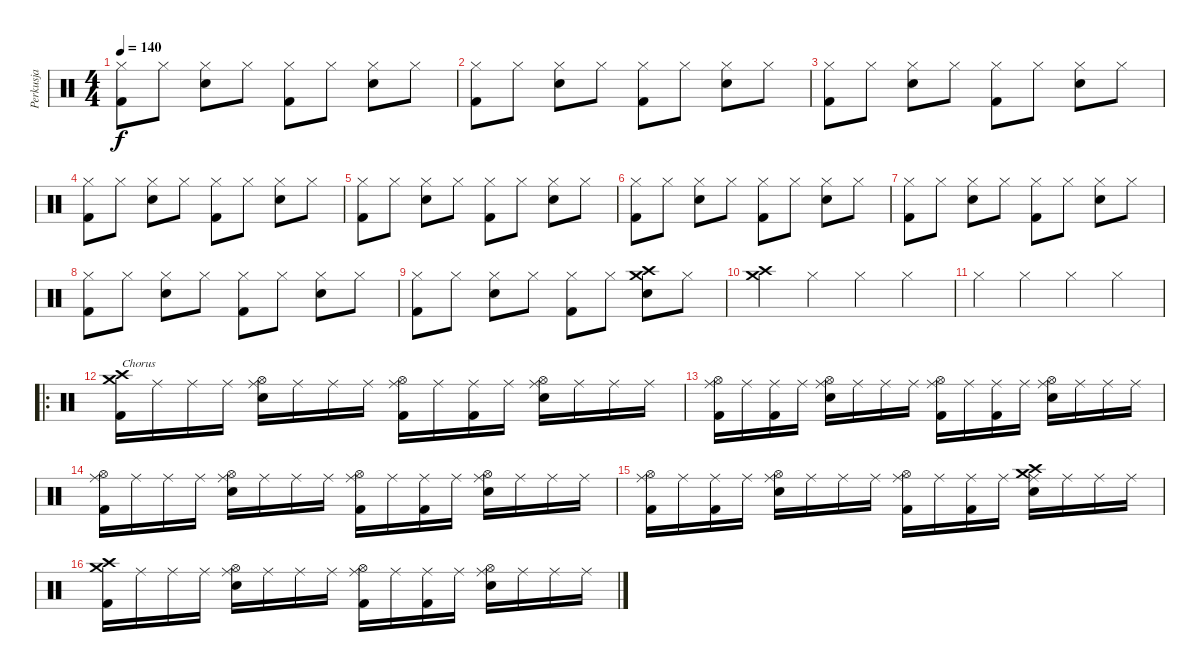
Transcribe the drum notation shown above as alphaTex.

\track ("Perkusja" "Perkusja") {instrument percussion}
\staff {score}
\articulation defaults
\ts (4 4)
\tempo 140
\clef neutral
\ks c
("Hi-Hat (closed)" "Kick (hit) 2").8{dy f} "Hi-Hat (closed)".8 ("Hi-Hat (closed)" "Snare (hit) 2").8 "Hi-Hat (closed)".8 ("Hi-Hat (closed)" "Kick (hit) 2").8 "Hi-Hat (closed)".8 ("Hi-Hat (closed)" "Snare (hit) 2").8 "Hi-Hat (closed)".8 |
("Hi-Hat (closed)" "Kick (hit) 2").8 "Hi-Hat (closed)".8 ("Hi-Hat (closed)" "Snare (hit) 2").8 "Hi-Hat (closed)".8 ("Hi-Hat (closed)" "Kick (hit) 2").8 "Hi-Hat (closed)".8 ("Hi-Hat (closed)" "Snare (hit) 2").8 "Hi-Hat (closed)".8 |
("Hi-Hat (closed)" "Kick (hit) 2").8 "Hi-Hat (closed)".8 ("Hi-Hat (closed)" "Snare (hit) 2").8 "Hi-Hat (closed)".8 ("Hi-Hat (closed)" "Kick (hit) 2").8 "Hi-Hat (closed)".8 ("Hi-Hat (closed)" "Snare (hit) 2").8 "Hi-Hat (closed)".8 |
("Hi-Hat (closed)" "Kick (hit) 2").8 "Hi-Hat (closed)".8 ("Hi-Hat (closed)" "Snare (hit) 2").8 "Hi-Hat (closed)".8 ("Hi-Hat (closed)" "Kick (hit) 2").8 "Hi-Hat (closed)".8 ("Hi-Hat (closed)" "Snare (hit) 2").8 "Hi-Hat (closed)".8 |
("Hi-Hat (closed)" "Kick (hit) 2").8 "Hi-Hat (closed)".8 ("Hi-Hat (closed)" "Snare (hit) 2").8 "Hi-Hat (closed)".8 ("Hi-Hat (closed)" "Kick (hit) 2").8 "Hi-Hat (closed)".8 ("Hi-Hat (closed)" "Snare (hit) 2").8 "Hi-Hat (closed)".8 |
("Hi-Hat (closed)" "Kick (hit) 2").8 "Hi-Hat (closed)".8 ("Hi-Hat (closed)" "Snare (hit) 2").8 "Hi-Hat (closed)".8 ("Hi-Hat (closed)" "Kick (hit) 2").8 "Hi-Hat (closed)".8 ("Hi-Hat (closed)" "Snare (hit) 2").8 "Hi-Hat (closed)".8 |
("Hi-Hat (closed)" "Kick (hit) 2").8 "Hi-Hat (closed)".8 ("Hi-Hat (closed)" "Snare (hit) 2").8 "Hi-Hat (closed)".8 ("Hi-Hat (closed)" "Kick (hit) 2").8 "Hi-Hat (closed)".8 ("Hi-Hat (closed)" "Snare (hit) 2").8 "Hi-Hat (closed)".8 |
("Hi-Hat (closed)" "Kick (hit) 2").8 "Hi-Hat (closed)".8 ("Hi-Hat (closed)" "Snare (hit) 2").8 "Hi-Hat (closed)".8 ("Hi-Hat (closed)" "Kick (hit) 2").8 "Hi-Hat (closed)".8 ("Hi-Hat (closed)" "Snare (hit) 2").8 "Hi-Hat (closed)".8 |
("Hi-Hat (closed)" "Kick (hit) 2").8 "Hi-Hat (closed)".8 ("Hi-Hat (closed)" "Snare (hit) 2").8 "Hi-Hat (closed)".8 ("Hi-Hat (closed)" "Kick (hit) 2").8 "Hi-Hat (closed)".8 ("Crash medium (hit)" "Crash high (hit)" "Snare (hit) 2").8 "Hi-Hat (closed)".8 |
("Crash medium (hit)" "Crash high (hit)").4 "Hi-Hat (closed)".4 "Hi-Hat (closed)".4 "Hi-Hat (closed)".4 |
"Hi-Hat (closed)".4 "Hi-Hat (closed)".4 "Hi-Hat (closed)".4 "Hi-Hat (closed)".4 |
\ro
("Crash medium (hit)" "Crash high (hit)" "Kick (hit) 2").16{txt "Chorus"} "Ride (middle)".16 "Ride (middle)".16 "Ride (middle)".16 ("Ride (middle)" "Hi-Hat (open)" "Snare (hit) 2").16 "Ride (middle)".16 "Ride (middle)".16 "Ride (middle)".16 ("Ride (middle)" "Hi-Hat (open)" "Kick (hit) 2").16 "Ride (middle)".16 ("Ride (middle)" "Kick (hit) 2").16 "Ride (middle)".16 ("Ride (middle)" "Hi-Hat (open)" "Snare (hit) 2").16 "Ride (middle)".16 "Ride (middle)".16 "Ride (middle)".16 |
("Ride (middle)" "Hi-Hat (open)" "Kick (hit) 2").16 "Ride (middle)".16 ("Ride (middle)" "Kick (hit) 2").16 "Ride (middle)".16 ("Ride (middle)" "Hi-Hat (open)" "Snare (hit) 2").16 "Ride (middle)".16 "Ride (middle)".16 "Ride (middle)".16 ("Ride (middle)" "Hi-Hat (open)" "Kick (hit) 2").16 "Ride (middle)".16 ("Ride (middle)" "Kick (hit) 2").16 "Ride (middle)".16 ("Ride (middle)" "Hi-Hat (open)" "Snare (hit) 2").16 "Ride (middle)".16 "Ride (middle)".16 "Ride (middle)".16 |
("Ride (middle)" "Hi-Hat (open)" "Kick (hit) 2").16 "Ride (middle)".16 "Ride (middle)".16 "Ride (middle)".16 ("Ride (middle)" "Hi-Hat (open)" "Snare (hit) 2").16 "Ride (middle)".16 "Ride (middle)".16 "Ride (middle)".16 ("Ride (middle)" "Hi-Hat (open)" "Kick (hit) 2").16 "Ride (middle)".16 ("Ride (middle)" "Kick (hit) 2").16 "Ride (middle)".16 ("Ride (middle)" "Hi-Hat (open)" "Snare (hit) 2").16 "Ride (middle)".16 "Ride (middle)".16 "Ride (middle)".16 |
("Ride (middle)" "Hi-Hat (open)" "Kick (hit) 2").16 "Ride (middle)".16 ("Ride (middle)" "Kick (hit) 2").16 "Ride (middle)".16 ("Ride (middle)" "Hi-Hat (open)" "Snare (hit) 2").16 "Ride (middle)".16 "Ride (middle)".16 "Ride (middle)".16 ("Ride (middle)" "Hi-Hat (open)" "Kick (hit) 2").16 "Ride (middle)".16 ("Ride (middle)" "Kick (hit) 2").16 "Ride (middle)".16 ("Crash medium (hit)" "Crash high (hit)" "Ride (middle)" "Snare (hit) 2").16 "Ride (middle)".16 "Ride (middle)".16 "Ride (middle)".16 |
("Crash medium (hit)" "Crash high (hit)" "Kick (hit) 2").16 "Ride (middle)".16 "Ride (middle)".16 "Ride (middle)".16 ("Ride (middle)" "Hi-Hat (open)" "Snare (hit) 2").16 "Ride (middle)".16 "Ride (middle)".16 "Ride (middle)".16 ("Ride (middle)" "Hi-Hat (open)" "Kick (hit) 2").16 "Ride (middle)".16 ("Ride (middle)" "Kick (hit) 2").16 "Ride (middle)".16 ("Ride (middle)" "Hi-Hat (open)" "Snare (hit) 2").16 "Ride (middle)".16 "Ride (middle)".16 "Ride (middle)".16
